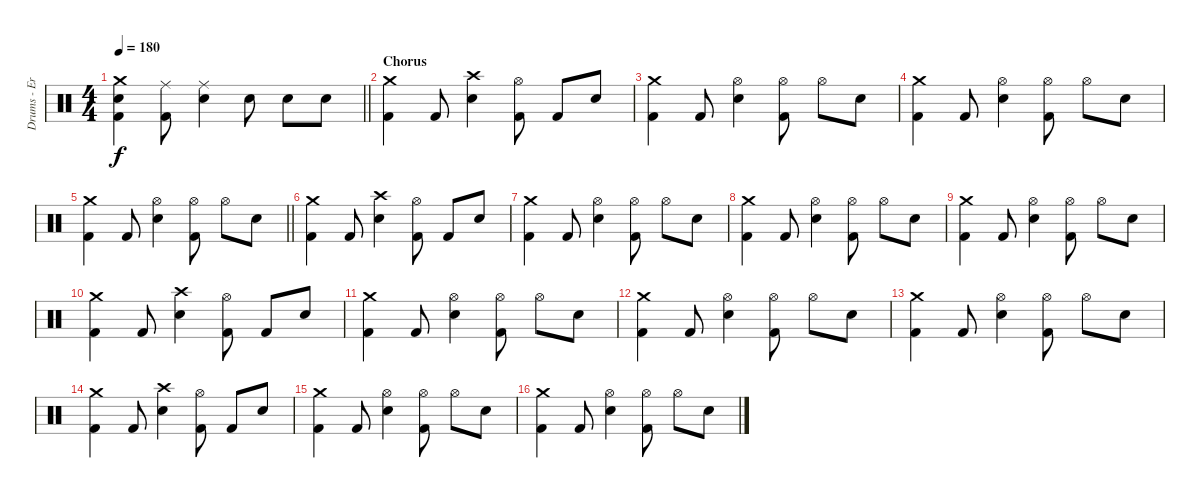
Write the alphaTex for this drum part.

\track ("Drums - Eric Young" "Drums - Er") {instrument percussion}
\staff {score}
\articulation defaults
\ts (4 4)
\tempo 180
\clef neutral
\barLineRight lightlight
\ks c
("Crash medium (hit)" "Electric Snare (hit)" "Kick (hit) 2").4{dy f} ("Ride (middle)" "Kick (hit) 2").8 ("Ride (middle)" "Electric Snare (hit)").4 "Electric Snare (hit)".8 "Electric Snare (hit)".8 "Electric Snare (hit)".8 |
\section ("" "Chorus")
("Crash medium (hit)" "Kick (hit) 2").4 "Kick (hit) 2".8 ("Crash high (hit)" "Electric Snare (hit)").4 ("Hi-Hat (open)" "Kick (hit) 2").8 "Kick (hit) 2".8 "Electric Snare (hit)".8 |
("Crash medium (hit)" "Kick (hit) 2").4 "Kick (hit) 2".8 ("Hi-Hat (open)" "Electric Snare (hit)").4 ("Hi-Hat (open)" "Kick (hit) 2").8 "Hi-Hat (open)".8 "Electric Snare (hit)".8 |
("Crash medium (hit)" "Kick (hit) 2").4 "Kick (hit) 2".8 ("Hi-Hat (open)" "Electric Snare (hit)").4 ("Hi-Hat (open)" "Kick (hit) 2").8 "Hi-Hat (open)".8 "Electric Snare (hit)".8 |
\barLineRight lightlight
("Crash medium (hit)" "Kick (hit) 2").4 "Kick (hit) 2".8 ("Hi-Hat (open)" "Electric Snare (hit)").4 ("Hi-Hat (open)" "Kick (hit) 2").8 "Hi-Hat (open)".8 "Electric Snare (hit)".8 |
("Crash medium (hit)" "Kick (hit) 2").4 "Kick (hit) 2".8 ("Crash high (hit)" "Electric Snare (hit)").4 ("Hi-Hat (open)" "Kick (hit) 2").8 "Kick (hit) 2".8 "Electric Snare (hit)".8 |
("Crash medium (hit)" "Kick (hit) 2").4 "Kick (hit) 2".8 ("Hi-Hat (open)" "Electric Snare (hit)").4 ("Hi-Hat (open)" "Kick (hit) 2").8 "Hi-Hat (open)".8 "Electric Snare (hit)".8 |
("Crash medium (hit)" "Kick (hit) 2").4 "Kick (hit) 2".8 ("Hi-Hat (open)" "Electric Snare (hit)").4 ("Hi-Hat (open)" "Kick (hit) 2").8 "Hi-Hat (open)".8 "Electric Snare (hit)".8 |
("Crash medium (hit)" "Kick (hit) 2").4 "Kick (hit) 2".8 ("Hi-Hat (open)" "Electric Snare (hit)").4 ("Hi-Hat (open)" "Kick (hit) 2").8 "Hi-Hat (open)".8 "Electric Snare (hit)".8 |
("Crash medium (hit)" "Kick (hit) 2").4 "Kick (hit) 2".8 ("Crash high (hit)" "Electric Snare (hit)").4 ("Hi-Hat (open)" "Kick (hit) 2").8 "Kick (hit) 2".8 "Electric Snare (hit)".8 |
("Crash medium (hit)" "Kick (hit) 2").4 "Kick (hit) 2".8 ("Hi-Hat (open)" "Electric Snare (hit)").4 ("Hi-Hat (open)" "Kick (hit) 2").8 "Hi-Hat (open)".8 "Electric Snare (hit)".8 |
("Crash medium (hit)" "Kick (hit) 2").4 "Kick (hit) 2".8 ("Hi-Hat (open)" "Electric Snare (hit)").4 ("Hi-Hat (open)" "Kick (hit) 2").8 "Hi-Hat (open)".8 "Electric Snare (hit)".8 |
("Crash medium (hit)" "Kick (hit) 2").4 "Kick (hit) 2".8 ("Hi-Hat (open)" "Electric Snare (hit)").4 ("Hi-Hat (open)" "Kick (hit) 2").8 "Hi-Hat (open)".8 "Electric Snare (hit)".8 |
("Crash medium (hit)" "Kick (hit) 2").4 "Kick (hit) 2".8 ("Crash high (hit)" "Electric Snare (hit)").4 ("Hi-Hat (open)" "Kick (hit) 2").8 "Kick (hit) 2".8 "Electric Snare (hit)".8 |
("Crash medium (hit)" "Kick (hit) 2").4 "Kick (hit) 2".8 ("Hi-Hat (open)" "Electric Snare (hit)").4 ("Hi-Hat (open)" "Kick (hit) 2").8 "Hi-Hat (open)".8 "Electric Snare (hit)".8 |
("Crash medium (hit)" "Kick (hit) 2").4 "Kick (hit) 2".8 ("Hi-Hat (open)" "Electric Snare (hit)").4 ("Hi-Hat (open)" "Kick (hit) 2").8 "Hi-Hat (open)".8 "Electric Snare (hit)".8
